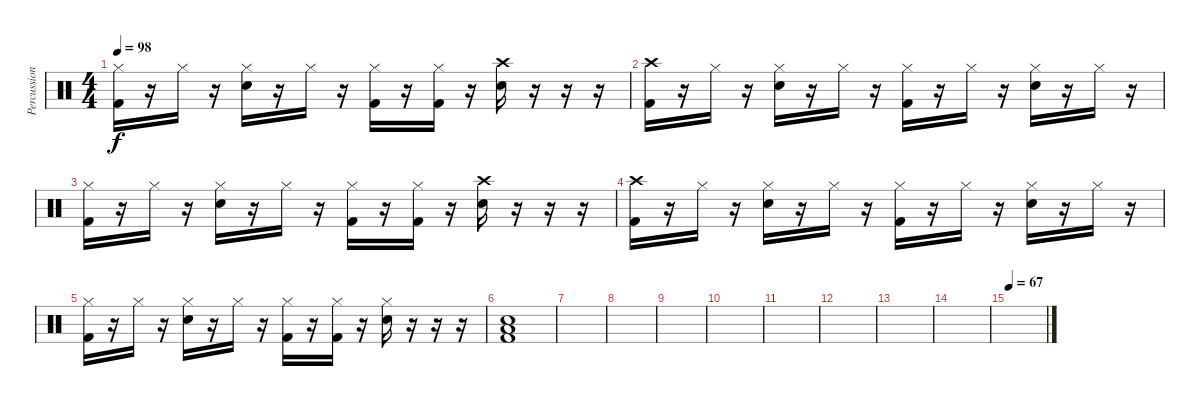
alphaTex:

\track ("Percussion" "Percussion") {instrument percussion}
\staff {score}
\articulation defaults
\ts (4 4)
\tempo 98
\clef neutral
\ks c
("Hi-Hat (closed)" "Kick (hit) 2").16{dy f} r.16 "Hi-Hat (closed)".16 r.16 ("Hi-Hat (closed)" "Snare (hit) 2").16 r.16 "Hi-Hat (closed)".16 r.16 ("Hi-Hat (closed)" "Kick (hit) 2").16 r.16 ("Hi-Hat (closed)" "Kick (hit) 2").16 r.16 ("Crash high (hit)" "Snare (hit) 2").16 r.16 r.16 r.16 |
("Crash high (hit)" "Kick (hit) 2").16 r.16 "Hi-Hat (closed)".16 r.16 ("Hi-Hat (closed)" "Snare (hit) 2").16 r.16 "Hi-Hat (closed)".16 r.16 ("Hi-Hat (closed)" "Kick (hit) 2").16 r.16 "Hi-Hat (closed)".16 r.16 ("Hi-Hat (closed)" "Snare (hit) 2").16 r.16 "Hi-Hat (closed)".16 r.16 |
("Hi-Hat (closed)" "Kick (hit) 2").16 r.16 "Hi-Hat (closed)".16 r.16 ("Hi-Hat (closed)" "Snare (hit) 2").16 r.16 "Hi-Hat (closed)".16 r.16 ("Hi-Hat (closed)" "Kick (hit) 2").16 r.16 ("Hi-Hat (closed)" "Kick (hit) 2").16 r.16 ("Crash high (hit)" "Snare (hit) 2").16 r.16 r.16 r.16 |
("Crash high (hit)" "Kick (hit) 2").16 r.16 "Hi-Hat (closed)".16 r.16 ("Hi-Hat (closed)" "Snare (hit) 2").16 r.16 "Hi-Hat (closed)".16 r.16 ("Hi-Hat (closed)" "Kick (hit) 2").16 r.16 "Hi-Hat (closed)".16 r.16 ("Hi-Hat (closed)" "Snare (hit) 2").16 r.16 "Hi-Hat (closed)".16 r.16 |
("Hi-Hat (closed)" "Kick (hit) 2").16 r.16 "Hi-Hat (closed)".16 r.16 ("Hi-Hat (closed)" "Snare (hit) 2").16 r.16 "Hi-Hat (closed)".16 r.16 ("Hi-Hat (closed)" "Kick (hit) 2").16 r.16 ("Hi-Hat (closed)" "Kick (hit) 2").16 r.16 ("Hi-Hat (closed)" "Snare (hit) 2").16 r.16 r.16 r.16 |
("Snare (hit) 2" "Low Floor Tom (hit)" "Kick (hit) 2").1 |
|
|
|
|
|
|
|
|
\tempo 67
